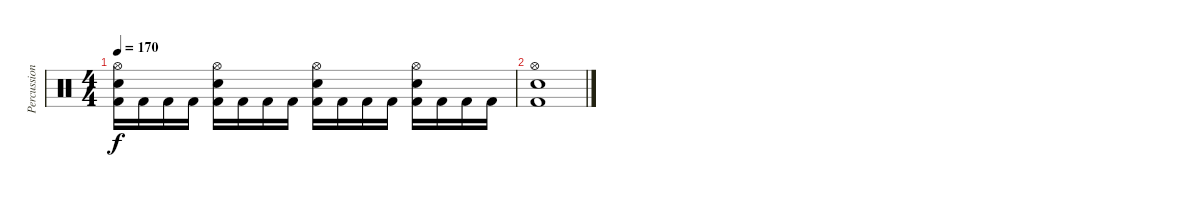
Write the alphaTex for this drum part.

\track ("Percussion" "Percussion") {instrument percussion}
\staff {score}
\articulation defaults
\ts (4 4)
\tempo 170
\clef neutral
\ks c
("Hi-Hat (open)" "Snare (hit) 2" "Kick (hit) 2").16{dy f} "Kick (hit) 2".16 "Kick (hit) 2".16 "Kick (hit) 2".16 ("Hi-Hat (open)" "Snare (hit) 2" "Kick (hit) 2").16 "Kick (hit) 2".16 "Kick (hit) 2".16 "Kick (hit) 2".16 ("Hi-Hat (open)" "Snare (hit) 2" "Kick (hit) 2").16 "Kick (hit) 2".16 "Kick (hit) 2".16 "Kick (hit) 2".16 ("Hi-Hat (open)" "Snare (hit) 2" "Kick (hit) 2").16 "Kick (hit) 2".16 "Kick (hit) 2".16 "Kick (hit) 2".16 |
("Hi-Hat (open)" "Snare (hit) 2" "Kick (hit) 2").1
